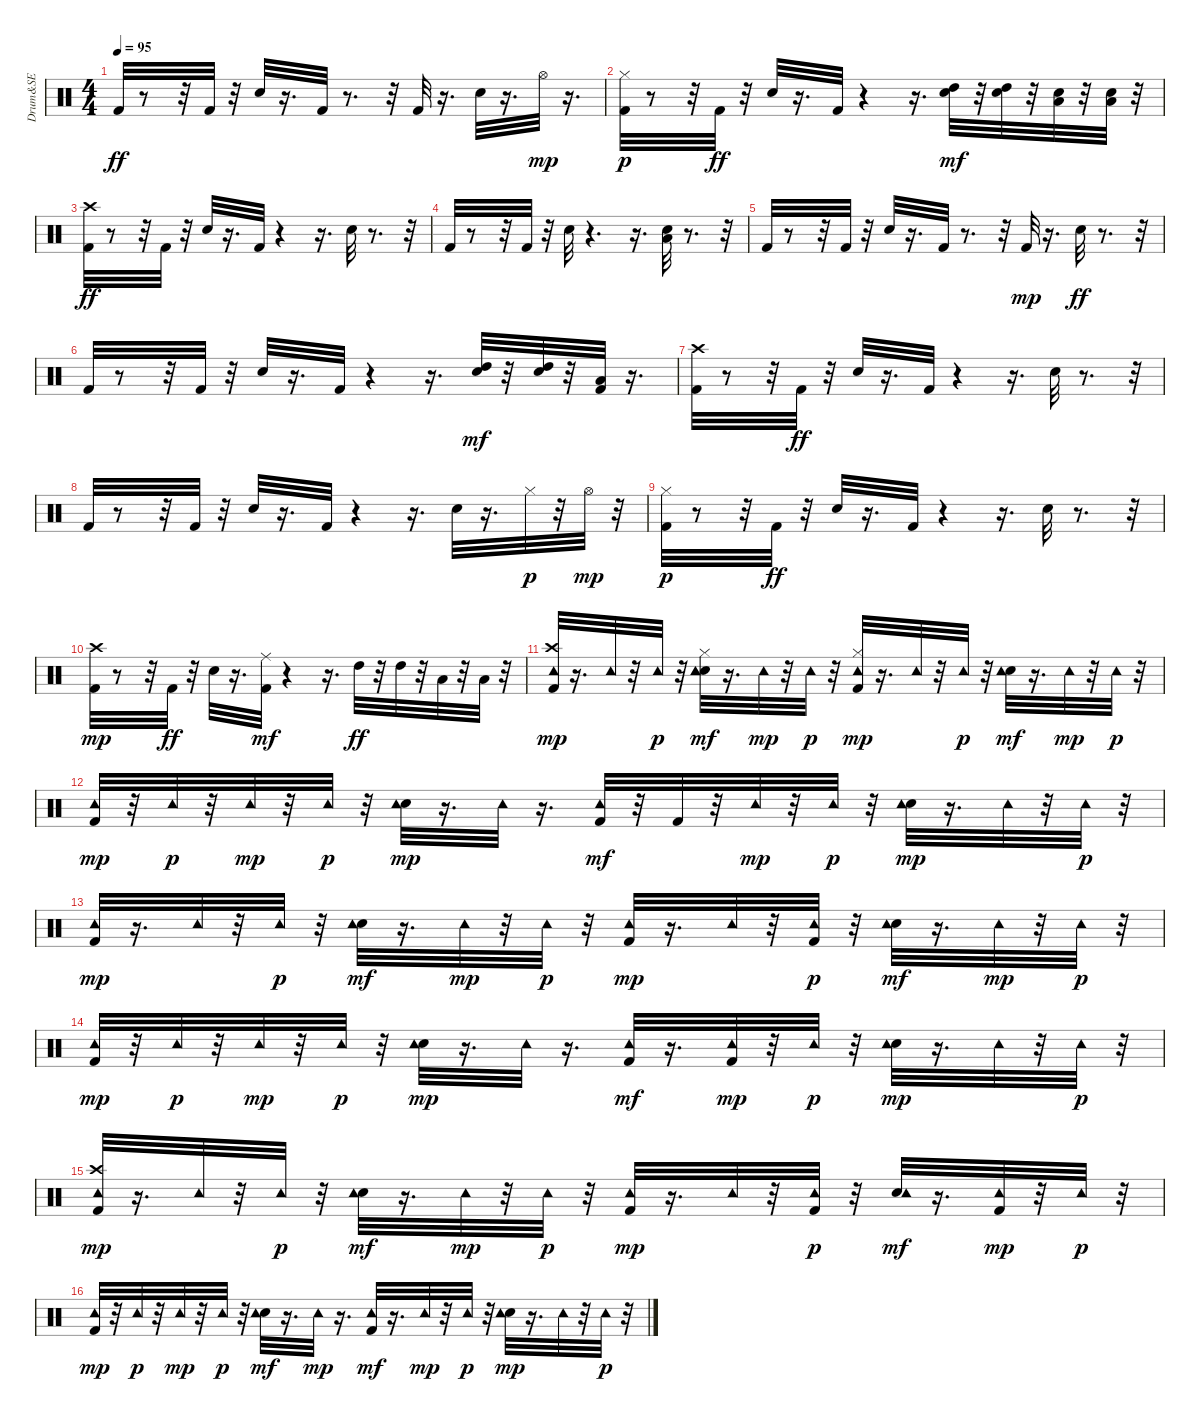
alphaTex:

\track ("Drum&SE" "Drum&SE") {instrument percussion}
\staff {score}
\articulation defaults
\ts (4 4)
\tempo 95
\clef neutral
\ks c "Kick (hit) 2".32{dy ff}
r.8 r.32 "Kick (hit) 2".32 r.32 "Snare (hit) 2".32 r.16{d} "Kick (hit) 2".32 r.8{d} r.32 "Kick (hit) 2".32 r.16{d} "Snare (hit) 2".32 r.16{d} "Hi-Hat (open)".32{dy mp} r.16{d} |
("Kick (hit) 2" "Hi-Hat (closed)").32{dy p} r.8 r.32 "Kick (hit) 2".32{dy ff} r.32 "Snare (hit) 2".32 r.16{d} "Kick (hit) 2".32 r.4 r.16{d} ("Snare (hit) 2" "High Tom (hit)").32{dy mf} r.32 ("Snare (hit) 2" "High Tom (hit)").32 r.32 ("Snare (hit) 2" "Low Tom (hit)").32 r.32 ("Snare (hit) 2" "Low Floor Tom (hit)").32 r.32 |
("Kick (hit) 2" "Crash high (hit)").32{dy ff} r.8 r.32 "Kick (hit) 2".32 r.32 "Snare (hit) 2".32 r.16{d} "Kick (hit) 2".32 r.4 r.16{d} "Snare (hit) 2".32 r.8{d} r.32 |
"Kick (hit) 2".32 r.8 r.32 "Kick (hit) 2".32 r.32 "Snare (hit) 2".32 r.4{d} r.16{d} ("Snare (hit) 2" "Low Floor Tom (hit)").32 r.8{d} r.32 |
"Kick (hit) 2".32 r.8 r.32 "Kick (hit) 2".32 r.32 "Snare (hit) 2".32 r.16{d} "Kick (hit) 2".32 r.8{d} r.32 "Kick (hit) 2".32{dy mp} r.16{d} "Snare (hit) 2".32{dy ff} r.8{d} r.32 |
"Kick (hit) 2".32 r.8 r.32 "Kick (hit) 2".32 r.32 "Snare (hit) 2".32 r.16{d} "Kick (hit) 2".32 r.4 r.16{d} ("Snare (hit) 2" "High Tom (hit)").32{dy mf} r.32 ("Snare (hit) 2" "High Tom (hit)").32 r.32 ("Kick (hit) 2" "Low Floor Tom (hit)").32 r.16{d} |
("Kick (hit) 2" "Crash high (hit)").32 r.8 r.32 "Kick (hit) 2".32{dy ff} r.32 "Snare (hit) 2".32 r.16{d} "Kick (hit) 2".32 r.4 r.16{d} "Snare (hit) 2".32 r.8{d} r.32 |
"Kick (hit) 2".32 r.8 r.32 "Kick (hit) 2".32 r.32 "Snare (hit) 2".32 r.16{d} "Kick (hit) 2".32 r.4 r.16{d} "Snare (hit) 2".32 r.16{d} "Hi-Hat (closed)".32{dy p} r.32 "Hi-Hat (open)".32{dy mp} r.32 |
("Kick (hit) 2" "Hi-Hat (closed)").32{dy p} r.8 r.32 "Kick (hit) 2".32{dy ff} r.32 "Snare (hit) 2".32 r.16{d} "Kick (hit) 2".32 r.4 r.16{d} "Snare (hit) 2".32 r.8{d} r.32 |
("Kick (hit) 2" "Crash high (hit)").32{dy mp} r.8 r.32 "Kick (hit) 2".32{dy ff} r.32 "Snare (hit) 2".32 r.16{d} ("Kick (hit) 2" "Ride (middle)").32{dy mf} r.4 r.16{d} "High Tom (hit)".32{dy ff} r.32 "High Tom (hit)".32 r.32 "Low Floor Tom (hit)".32 r.32 "Low Tom (hit)".32 r.32 |
("Kick (hit) 2" "Crash high (hit)" "Tambourine (hit)").32{dy mp} r.16{d} "Tambourine (hit)".32 r.32 "Tambourine (hit)".32{dy p} r.32 ("Snare (hit) 2" "Tambourine (hit)" "Hi-Hat (closed)" "Tambourine (hit)").32{dy mf} r.16{d} "Tambourine (hit)".32{dy mp} r.32 "Tambourine (hit)".32{dy p} r.32 ("Kick (hit) 2" "Hi-Hat (closed)" "Tambourine (hit)").32{dy mp} r.16{d} "Tambourine (hit)".32 r.32 "Tambourine (hit)".32{dy p} r.32 ("Snare (hit) 2" "Tambourine (hit)").32{dy mf} r.16{d} "Tambourine (hit)".32{dy mp} r.32 "Tambourine (hit)".32{dy p} r.32 |
("Kick (hit) 2" "Tambourine (hit)").32{dy mp} r.32 "Tambourine (hit)".32{dy p} r.32 "Tambourine (hit)".32{dy mp} r.32 "Tambourine (hit)".32{dy p} r.32 ("Snare (hit) 2" "Tambourine (hit)").32{dy mp} r.16{d} "Tambourine (hit)".32 r.16{d} ("Kick (hit) 2" "Tambourine (hit)").32{dy mf} r.32 "Kick (hit) 2".32 r.32 "Tambourine (hit)".32{dy mp} r.32 "Tambourine (hit)".32{dy p} r.32 ("Snare (hit) 2" "Tambourine (hit)").32{dy mp} r.16{d} "Tambourine (hit)".32 r.32 "Tambourine (hit)".32{dy p} r.32 |
("Kick (hit) 2" "Tambourine (hit)").32{dy mp} r.16{d} "Tambourine (hit)".32 r.32 "Tambourine (hit)".32{dy p} r.32 ("Snare (hit) 2" "Tambourine (hit)").32{dy mf} r.16{d} "Tambourine (hit)".32{dy mp} r.32 "Tambourine (hit)".32{dy p} r.32 ("Kick (hit) 2" "Tambourine (hit)").32{dy mp} r.16{d} "Tambourine (hit)".32 r.32 ("Kick (hit) 2" "Tambourine (hit)").32{dy p} r.32 ("Snare (hit) 2" "Tambourine (hit)").32{dy mf} r.16{d} "Tambourine (hit)".32{dy mp} r.32 "Tambourine (hit)".32{dy p} r.32 |
("Kick (hit) 2" "Tambourine (hit)").32{dy mp} r.32 "Tambourine (hit)".32{dy p} r.32 "Tambourine (hit)".32{dy mp} r.32 "Tambourine (hit)".32{dy p} r.32 ("Snare (hit) 2" "Tambourine (hit)").32{dy mp} r.16{d} "Tambourine (hit)".32 r.16{d} ("Kick (hit) 2" "Tambourine (hit)").32{dy mf} r.16{d} ("Kick (hit) 2" "Tambourine (hit)").32{dy mp} r.32 "Tambourine (hit)".32{dy p} r.32 ("Snare (hit) 2" "Tambourine (hit)").32{dy mp} r.16{d} "Tambourine (hit)".32 r.32 "Tambourine (hit)".32{dy p} r.32 |
("Kick (hit) 2" "Crash high (hit)" "Tambourine (hit)").32{dy mp} r.16{d} "Tambourine (hit)".32 r.32 "Tambourine (hit)".32{dy p} r.32 ("Snare (hit) 2" "Tambourine (hit)").32{dy mf} r.16{d} "Tambourine (hit)".32{dy mp} r.32 "Tambourine (hit)".32{dy p} r.32 ("Kick (hit) 2" "Tambourine (hit)").32{dy mp} r.16{d} "Tambourine (hit)".32 r.32 ("Kick (hit) 2" "Tambourine (hit)").32{dy p} r.32 ("Snare (hit) 2" "Tambourine (hit)").32{dy mf} r.16{d} ("Kick (hit) 2" "Tambourine (hit)").32{dy mp} r.32 "Tambourine (hit)".32{dy p} r.32 |
("Kick (hit) 2" "Tambourine (hit)").32{dy mp} r.32 "Tambourine (hit)".32{dy p} r.32 "Tambourine (hit)".32{dy mp} r.32 "Tambourine (hit)".32{dy p} r.32 ("Snare (hit) 2" "Tambourine (hit)").32{dy mf} r.16{d} "Tambourine (hit)".32{dy mp} r.16{d} ("Kick (hit) 2" "Tambourine (hit)").32{dy mf} r.16{d} "Tambourine (hit)".32{dy mp} r.32 "Tambourine (hit)".32{dy p} r.32 ("Snare (hit) 2" "Tambourine (hit)").32{dy mp} r.16{d} "Tambourine (hit)".32 r.32 "Tambourine (hit)".32{dy p} r.32
